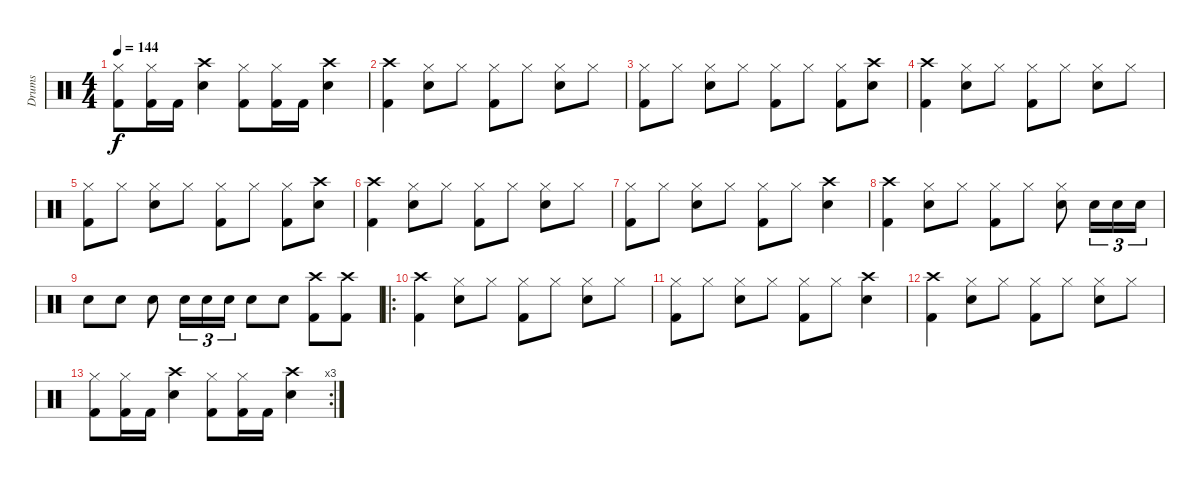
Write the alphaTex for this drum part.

\track ("Drums" "Drums") {instrument percussion}
\staff {score}
\articulation defaults
\ts (4 4)
\tempo 144
\clef neutral
\ks c
("Hi-Hat (closed)" "Kick (hit) 2").8{dy f} ("Hi-Hat (closed)" "Kick (hit) 2").16 "Kick (hit) 2".16 ("Crash high (hit)" "Snare (hit) 2").4 ("Hi-Hat (closed)" "Kick (hit) 2").8 ("Hi-Hat (closed)" "Kick (hit) 2").16 "Kick (hit) 2".16 ("Crash high (hit)" "Snare (hit) 2").4 |
("Crash high (hit)" "Kick (hit) 2").4 ("Hi-Hat (closed)" "Snare (hit) 2").8 "Hi-Hat (closed)".8 ("Hi-Hat (closed)" "Kick (hit) 2").8 "Hi-Hat (closed)".8 ("Hi-Hat (closed)" "Snare (hit) 2").8 "Hi-Hat (closed)".8 |
("Hi-Hat (closed)" "Kick (hit) 2").8 "Hi-Hat (closed)".8 ("Hi-Hat (closed)" "Snare (hit) 2").8 "Hi-Hat (closed)".8 ("Hi-Hat (closed)" "Kick (hit) 2").8 "Hi-Hat (closed)".8 ("Hi-Hat (closed)" "Kick (hit) 2").8 ("Crash high (hit)" "Snare (hit) 2").8 |
("Crash high (hit)" "Kick (hit) 2").4 ("Hi-Hat (closed)" "Snare (hit) 2").8 "Hi-Hat (closed)".8 ("Hi-Hat (closed)" "Kick (hit) 2").8 "Hi-Hat (closed)".8 ("Hi-Hat (closed)" "Snare (hit) 2").8 "Hi-Hat (closed)".8 |
("Hi-Hat (closed)" "Kick (hit) 2").8 "Hi-Hat (closed)".8 ("Hi-Hat (closed)" "Snare (hit) 2").8 "Hi-Hat (closed)".8 ("Hi-Hat (closed)" "Kick (hit) 2").8 "Hi-Hat (closed)".8 ("Hi-Hat (closed)" "Kick (hit) 2").8 ("Crash high (hit)" "Snare (hit) 2").8 |
("Crash high (hit)" "Kick (hit) 2").4 ("Hi-Hat (closed)" "Snare (hit) 2").8 "Hi-Hat (closed)".8 ("Hi-Hat (closed)" "Kick (hit) 2").8 "Hi-Hat (closed)".8 ("Hi-Hat (closed)" "Snare (hit) 2").8 "Hi-Hat (closed)".8 |
("Hi-Hat (closed)" "Kick (hit) 2").8 "Hi-Hat (closed)".8 ("Hi-Hat (closed)" "Snare (hit) 2").8 "Hi-Hat (closed)".8 ("Hi-Hat (closed)" "Kick (hit) 2").8 "Hi-Hat (closed)".8 ("Crash high (hit)" "Snare (hit) 2").4 |
("Crash high (hit)" "Kick (hit) 2").4 ("Hi-Hat (closed)" "Snare (hit) 2").8 "Hi-Hat (closed)".8 ("Hi-Hat (closed)" "Kick (hit) 2").8 "Hi-Hat (closed)".8 ("Hi-Hat (closed)" "Snare (hit) 2").8 "Snare (hit) 2".16{tu (3 2)} "Snare (hit) 2".16{tu (3 2)} "Snare (hit) 2".16{tu (3 2)} |
"Snare (hit) 2".8 "Snare (hit) 2".8 "Snare (hit) 2".8 "Snare (hit) 2".16{tu (3 2)} "Snare (hit) 2".16{tu (3 2)} "Snare (hit) 2".16{tu (3 2)} "Snare (hit) 2".8 "Snare (hit) 2".8 ("Crash high (hit)" "Kick (hit) 2").8 ("Crash high (hit)" "Kick (hit) 2").8 |
\ro
("Crash high (hit)" "Kick (hit) 2").4 ("Hi-Hat (closed)" "Snare (hit) 2").8 "Hi-Hat (closed)".8 ("Hi-Hat (closed)" "Kick (hit) 2").8 "Hi-Hat (closed)".8 ("Hi-Hat (closed)" "Snare (hit) 2").8 "Hi-Hat (closed)".8 |
("Hi-Hat (closed)" "Kick (hit) 2").8 "Hi-Hat (closed)".8 ("Hi-Hat (closed)" "Snare (hit) 2").8 "Hi-Hat (closed)".8 ("Hi-Hat (closed)" "Kick (hit) 2").8 "Hi-Hat (closed)".8 ("Crash high (hit)" "Snare (hit) 2").4 |
("Crash high (hit)" "Kick (hit) 2").4 ("Hi-Hat (closed)" "Snare (hit) 2").8 "Hi-Hat (closed)".8 ("Hi-Hat (closed)" "Kick (hit) 2").8 "Hi-Hat (closed)".8 ("Hi-Hat (closed)" "Snare (hit) 2").8 "Hi-Hat (closed)".8 |
\rc 3
("Hi-Hat (closed)" "Kick (hit) 2").8 ("Hi-Hat (closed)" "Kick (hit) 2").16 "Kick (hit) 2".16 ("Crash high (hit)" "Snare (hit) 2").4 ("Hi-Hat (closed)" "Kick (hit) 2").8 ("Hi-Hat (closed)" "Kick (hit) 2").16 "Kick (hit) 2".16 ("Crash high (hit)" "Snare (hit) 2").4{volume 5}
